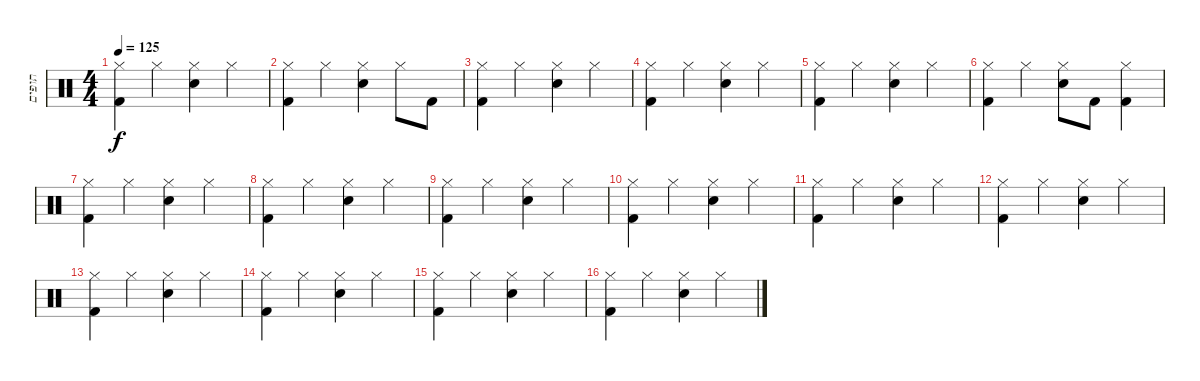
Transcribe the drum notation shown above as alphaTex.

\track ("תופים" "תופים") {instrument percussion}
\staff {score}
\articulation defaults
\ts (4 4)
\tempo 125
\clef neutral
\ks c
("Hi-Hat (closed)" "Kick (hit) 2").4{dy f} "Hi-Hat (closed)".4 ("Hi-Hat (closed)" "Snare (hit) 2").4 "Hi-Hat (closed)".4 |
("Hi-Hat (closed)" "Kick (hit) 2").4 "Hi-Hat (closed)".4 ("Hi-Hat (closed)" "Snare (hit) 2").4 "Hi-Hat (closed)".8 "Kick (hit) 2".8 |
("Hi-Hat (closed)" "Kick (hit) 2").4 "Hi-Hat (closed)".4 ("Hi-Hat (closed)" "Snare (hit) 2").4 "Hi-Hat (closed)".4 |
("Hi-Hat (closed)" "Kick (hit) 2").4 "Hi-Hat (closed)".4 ("Hi-Hat (closed)" "Snare (hit) 2").4 "Hi-Hat (closed)".4 |
("Hi-Hat (closed)" "Kick (hit) 2").4 "Hi-Hat (closed)".4 ("Hi-Hat (closed)" "Snare (hit) 2").4 "Hi-Hat (closed)".4 |
("Hi-Hat (closed)" "Kick (hit) 2").4 "Hi-Hat (closed)".4 ("Hi-Hat (closed)" "Snare (hit) 2").8 "Kick (hit) 2".8 ("Hi-Hat (closed)" "Kick (hit) 2").4 |
("Hi-Hat (closed)" "Kick (hit) 2").4 "Hi-Hat (closed)".4 ("Hi-Hat (closed)" "Snare (hit) 2").4 "Hi-Hat (closed)".4 |
("Hi-Hat (closed)" "Kick (hit) 2").4 "Hi-Hat (closed)".4 ("Hi-Hat (closed)" "Snare (hit) 2").4 "Hi-Hat (closed)".4 |
("Hi-Hat (closed)" "Kick (hit) 2").4 "Hi-Hat (closed)".4 ("Hi-Hat (closed)" "Snare (hit) 2").4 "Hi-Hat (closed)".4 |
("Hi-Hat (closed)" "Kick (hit) 2").4 "Hi-Hat (closed)".4 ("Hi-Hat (closed)" "Snare (hit) 2").4 "Hi-Hat (closed)".4 |
("Hi-Hat (closed)" "Kick (hit) 2").4 "Hi-Hat (closed)".4 ("Hi-Hat (closed)" "Snare (hit) 2").4 "Hi-Hat (closed)".4 |
("Hi-Hat (closed)" "Kick (hit) 2").4 "Hi-Hat (closed)".4 ("Hi-Hat (closed)" "Snare (hit) 2").4 "Hi-Hat (closed)".4 |
("Hi-Hat (closed)" "Kick (hit) 2").4 "Hi-Hat (closed)".4 ("Hi-Hat (closed)" "Snare (hit) 2").4 "Hi-Hat (closed)".4 |
("Hi-Hat (closed)" "Kick (hit) 2").4 "Hi-Hat (closed)".4 ("Hi-Hat (closed)" "Snare (hit) 2").4 "Hi-Hat (closed)".4 |
("Hi-Hat (closed)" "Kick (hit) 2").4 "Hi-Hat (closed)".4 ("Hi-Hat (closed)" "Snare (hit) 2").4 "Hi-Hat (closed)".4 |
("Hi-Hat (closed)" "Kick (hit) 2").4 "Hi-Hat (closed)".4 ("Hi-Hat (closed)" "Snare (hit) 2").4 "Hi-Hat (closed)".4
